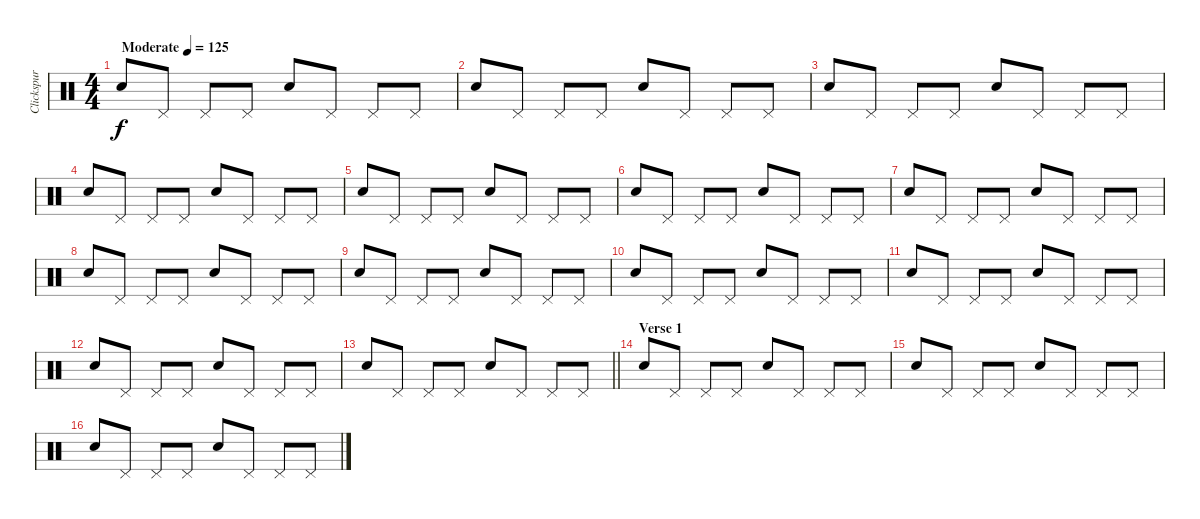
\track ("Clickspur" "Clickspur") {instrument percussion}
\staff {score}
\articulation defaults
\ts (4 4)
\tempo (125 "Moderate")
\clef neutral
\ks c "Electric Snare (hit)".8{dy f} "Pedal Hi-Hat (hit)".8 "Pedal Hi-Hat (hit)".8 "Pedal Hi-Hat (hit)".8 "Electric Snare (hit)".8 "Pedal Hi-Hat (hit)".8 "Pedal Hi-Hat (hit)".8 "Pedal Hi-Hat (hit)".8
|
"Electric Snare (hit)".8 "Pedal Hi-Hat (hit)".8 "Pedal Hi-Hat (hit)".8 "Pedal Hi-Hat (hit)".8 "Electric Snare (hit)".8 "Pedal Hi-Hat (hit)".8 "Pedal Hi-Hat (hit)".8 "Pedal Hi-Hat (hit)".8 |
"Electric Snare (hit)".8 "Pedal Hi-Hat (hit)".8 "Pedal Hi-Hat (hit)".8 "Pedal Hi-Hat (hit)".8 "Electric Snare (hit)".8 "Pedal Hi-Hat (hit)".8 "Pedal Hi-Hat (hit)".8 "Pedal Hi-Hat (hit)".8 |
"Electric Snare (hit)".8 "Pedal Hi-Hat (hit)".8 "Pedal Hi-Hat (hit)".8 "Pedal Hi-Hat (hit)".8 "Electric Snare (hit)".8 "Pedal Hi-Hat (hit)".8 "Pedal Hi-Hat (hit)".8 "Pedal Hi-Hat (hit)".8 |
"Electric Snare (hit)".8 "Pedal Hi-Hat (hit)".8 "Pedal Hi-Hat (hit)".8 "Pedal Hi-Hat (hit)".8 "Electric Snare (hit)".8 "Pedal Hi-Hat (hit)".8 "Pedal Hi-Hat (hit)".8 "Pedal Hi-Hat (hit)".8 |
"Electric Snare (hit)".8 "Pedal Hi-Hat (hit)".8 "Pedal Hi-Hat (hit)".8 "Pedal Hi-Hat (hit)".8 "Electric Snare (hit)".8 "Pedal Hi-Hat (hit)".8 "Pedal Hi-Hat (hit)".8 "Pedal Hi-Hat (hit)".8 |
"Electric Snare (hit)".8 "Pedal Hi-Hat (hit)".8 "Pedal Hi-Hat (hit)".8 "Pedal Hi-Hat (hit)".8 "Electric Snare (hit)".8 "Pedal Hi-Hat (hit)".8 "Pedal Hi-Hat (hit)".8 "Pedal Hi-Hat (hit)".8 |
"Electric Snare (hit)".8 "Pedal Hi-Hat (hit)".8 "Pedal Hi-Hat (hit)".8 "Pedal Hi-Hat (hit)".8 "Electric Snare (hit)".8 "Pedal Hi-Hat (hit)".8 "Pedal Hi-Hat (hit)".8 "Pedal Hi-Hat (hit)".8 |
"Electric Snare (hit)".8 "Pedal Hi-Hat (hit)".8 "Pedal Hi-Hat (hit)".8 "Pedal Hi-Hat (hit)".8 "Electric Snare (hit)".8 "Pedal Hi-Hat (hit)".8 "Pedal Hi-Hat (hit)".8 "Pedal Hi-Hat (hit)".8 |
"Electric Snare (hit)".8 "Pedal Hi-Hat (hit)".8 "Pedal Hi-Hat (hit)".8 "Pedal Hi-Hat (hit)".8 "Electric Snare (hit)".8 "Pedal Hi-Hat (hit)".8 "Pedal Hi-Hat (hit)".8 "Pedal Hi-Hat (hit)".8 |
"Electric Snare (hit)".8 "Pedal Hi-Hat (hit)".8 "Pedal Hi-Hat (hit)".8 "Pedal Hi-Hat (hit)".8 "Electric Snare (hit)".8 "Pedal Hi-Hat (hit)".8 "Pedal Hi-Hat (hit)".8 "Pedal Hi-Hat (hit)".8 |
"Electric Snare (hit)".8 "Pedal Hi-Hat (hit)".8 "Pedal Hi-Hat (hit)".8 "Pedal Hi-Hat (hit)".8 "Electric Snare (hit)".8 "Pedal Hi-Hat (hit)".8 "Pedal Hi-Hat (hit)".8 "Pedal Hi-Hat (hit)".8 |
\barLineRight lightlight "Electric Snare (hit)".8 "Pedal Hi-Hat (hit)".8 "Pedal Hi-Hat (hit)".8 "Pedal Hi-Hat (hit)".8 "Electric Snare (hit)".8 "Pedal Hi-Hat (hit)".8 "Pedal Hi-Hat (hit)".8 "Pedal Hi-Hat (hit)".8
|
\section ("" "Verse 1")
"Electric Snare (hit)".8 "Pedal Hi-Hat (hit)".8 "Pedal Hi-Hat (hit)".8 "Pedal Hi-Hat (hit)".8 "Electric Snare (hit)".8 "Pedal Hi-Hat (hit)".8 "Pedal Hi-Hat (hit)".8 "Pedal Hi-Hat (hit)".8 |
"Electric Snare (hit)".8 "Pedal Hi-Hat (hit)".8 "Pedal Hi-Hat (hit)".8 "Pedal Hi-Hat (hit)".8 "Electric Snare (hit)".8 "Pedal Hi-Hat (hit)".8 "Pedal Hi-Hat (hit)".8 "Pedal Hi-Hat (hit)".8 |
"Electric Snare (hit)".8 "Pedal Hi-Hat (hit)".8 "Pedal Hi-Hat (hit)".8 "Pedal Hi-Hat (hit)".8 "Electric Snare (hit)".8 "Pedal Hi-Hat (hit)".8 "Pedal Hi-Hat (hit)".8 "Pedal Hi-Hat (hit)".8
